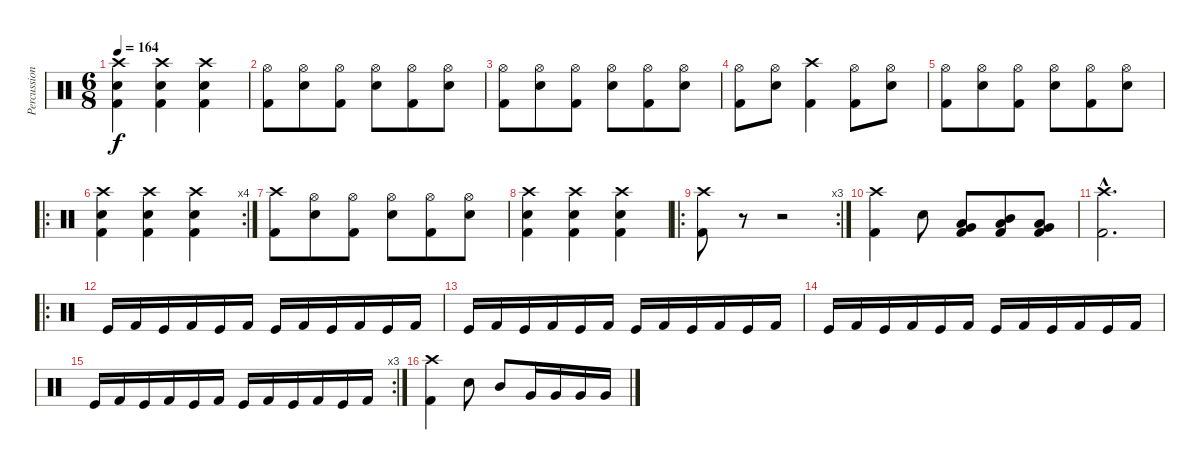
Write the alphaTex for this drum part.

\track ("Percussion" "Percussion") {instrument percussion}
\staff {score}
\articulation defaults
\ts (6 8)
\tempo 164
\clef neutral
\ks c
("Crash high (hit)" "Snare (hit) 2" "Kick (hit) 2").4{dy f} ("Crash high (hit)" "Snare (hit) 2" "Kick (hit) 2").4 ("Crash high (hit)" "Snare (hit) 2" "Kick (hit) 2").4 |
("Hi-Hat (open)" "Kick (hit) 2").8 ("Hi-Hat (open)" "Snare (hit) 2").8 ("Hi-Hat (open)" "Kick (hit) 2").8 ("Hi-Hat (open)" "Snare (hit) 2").8 ("Hi-Hat (open)" "Kick (hit) 2").8 ("Hi-Hat (open)" "Snare (hit) 2").8 |
("Hi-Hat (open)" "Kick (hit) 2").8 ("Hi-Hat (open)" "Snare (hit) 2").8 ("Hi-Hat (open)" "Kick (hit) 2").8 ("Hi-Hat (open)" "Snare (hit) 2").8 ("Hi-Hat (open)" "Kick (hit) 2").8 ("Hi-Hat (open)" "Snare (hit) 2").8 |
("Hi-Hat (open)" "Kick (hit) 2").8 ("Hi-Hat (open)" "Snare (hit) 2").8 ("Crash high (hit)" "Kick (hit) 2").4 ("Hi-Hat (open)" "Kick (hit) 2").8 ("Hi-Hat (open)" "Snare (hit) 2").8 |
("Hi-Hat (open)" "Kick (hit) 2").8 ("Hi-Hat (open)" "Snare (hit) 2").8 ("Hi-Hat (open)" "Kick (hit) 2").8 ("Hi-Hat (open)" "Snare (hit) 2").8 ("Hi-Hat (open)" "Kick (hit) 2").8 ("Hi-Hat (open)" "Snare (hit) 2").8 |
\ro
\rc 4
("Crash high (hit)" "Snare (hit) 2" "Kick (hit) 2").4 ("Crash high (hit)" "Snare (hit) 2" "Kick (hit) 2").4 ("Crash high (hit)" "Snare (hit) 2" "Kick (hit) 2").4 |
("Crash high (hit)" "Kick (hit) 2").8 ("Hi-Hat (open)" "Snare (hit) 2").8 ("Hi-Hat (open)" "Kick (hit) 2").8 ("Hi-Hat (open)" "Snare (hit) 2").8 ("Hi-Hat (open)" "Kick (hit) 2").8 ("Hi-Hat (open)" "Snare (hit) 2").8 |
("Crash high (hit)" "Snare (hit) 2" "Kick (hit) 2").4 ("Crash high (hit)" "Snare (hit) 2" "Kick (hit) 2").4 ("Crash high (hit)" "Snare (hit) 2" "Kick (hit) 2").4 |
\ro
\rc 3
("Crash high (hit)" "Kick (hit) 2").8 r.8 r.2 |
("Crash high (hit)" "Kick (hit) 2").4 "Snare (hit) 2".8 ("Low Tom (hit)" "Very Low Tom (hit)" "Kick (hit) 2").8 ("Mid Tom (hit)" "Low Tom (hit)" "Kick (hit) 2").8 ("Low Tom (hit)" "Very Low Tom (hit)" "Kick (hit) 2").8 |
("Crash high (hit)"{hac} "Kick (hit) 2"{hac}).2{d} |
\ro "Kick (hit)".16 "Kick (hit) 2".16 "Kick (hit)".16 "Kick (hit) 2".16 "Kick (hit)".16 "Kick (hit) 2".16 "Kick (hit)".16 "Kick (hit) 2".16 "Kick (hit)".16 "Kick (hit) 2".16 "Kick (hit)".16 "Kick (hit) 2".16
|
"Kick (hit)".16 "Kick (hit) 2".16 "Kick (hit)".16 "Kick (hit) 2".16 "Kick (hit)".16 "Kick (hit) 2".16 "Kick (hit)".16 "Kick (hit) 2".16 "Kick (hit)".16 "Kick (hit) 2".16 "Kick (hit)".16 "Kick (hit) 2".16 |
"Kick (hit)".16 "Kick (hit) 2".16 "Kick (hit)".16 "Kick (hit) 2".16 "Kick (hit)".16 "Kick (hit) 2".16 "Kick (hit)".16 "Kick (hit) 2".16 "Kick (hit)".16 "Kick (hit) 2".16 "Kick (hit)".16 "Kick (hit) 2".16 |
\rc 3 "Kick (hit)".16 "Kick (hit) 2".16 "Kick (hit)".16 "Kick (hit) 2".16 "Kick (hit)".16 "Kick (hit) 2".16 "Kick (hit)".16 "Kick (hit) 2".16 "Kick (hit)".16 "Kick (hit) 2".16 "Kick (hit)".16 "Kick (hit) 2".16
|
("Crash high (hit)" "Kick (hit) 2").4 "Snare (hit) 2".8 "Mid Tom (hit)".8 "Very Low Tom (hit)".16 "Very Low Tom (hit)".16 "Very Low Tom (hit)".16 "Very Low Tom (hit)".16
